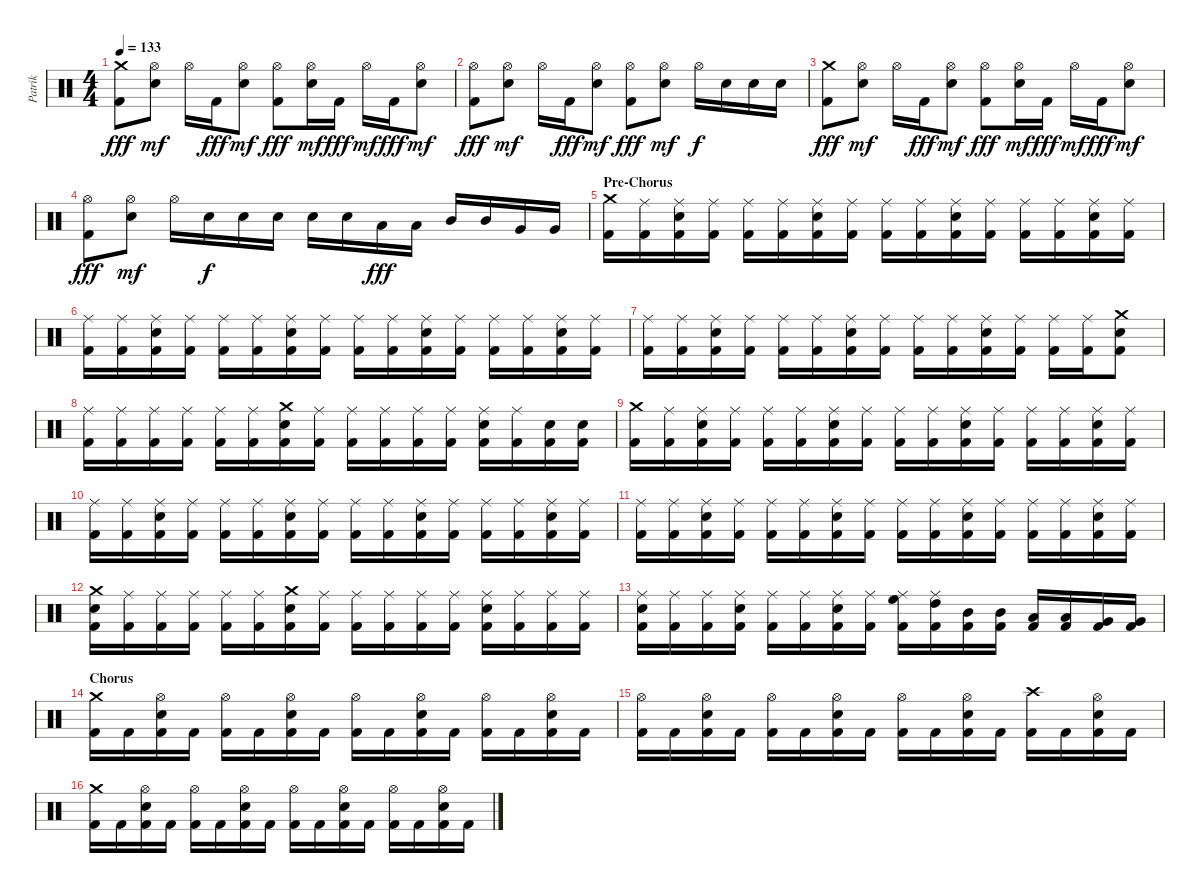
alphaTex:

\track ("Patrik" "Patrik") {instrument percussion}
\staff {score}
\articulation defaults
\ts (4 4)
\tempo 133
\clef neutral
\ks c
("Crash medium (hit)" "Kick (hit) 2").8{dy fff} ("Hi-Hat (open)" "Electric Snare (hit)").8{dy mf} "Hi-Hat (open)".16 "Kick (hit) 2".16{dy fff} ("Hi-Hat (open)" "Electric Snare (hit)").8{dy mf} ("Hi-Hat (open)" "Kick (hit) 2").8{dy fff} ("Hi-Hat (open)" "Electric Snare (hit)").16{dy mf} "Kick (hit) 2".16{dy fff} "Hi-Hat (open)".16{dy mf} "Kick (hit) 2".16{dy fff} ("Hi-Hat (open)" "Electric Snare (hit)").8{dy mf} |
("Hi-Hat (open)" "Kick (hit) 2").8{dy fff} ("Hi-Hat (open)" "Electric Snare (hit)").8{dy mf} "Hi-Hat (open)".16 "Kick (hit) 2".16{dy fff} ("Hi-Hat (open)" "Electric Snare (hit)").8{dy mf} ("Hi-Hat (open)" "Kick (hit) 2").8{dy fff} ("Hi-Hat (open)" "Electric Snare (hit)").8{dy mf} "Hi-Hat (open)".16{dy f} "Electric Snare (hit)".16 "Electric Snare (hit)".16 "Electric Snare (hit)".16 |
("Crash medium (hit)" "Kick (hit) 2").8{dy fff} ("Hi-Hat (open)" "Electric Snare (hit)").8{dy mf} "Hi-Hat (open)".16 "Kick (hit) 2".16{dy fff} ("Hi-Hat (open)" "Electric Snare (hit)").8{dy mf} ("Hi-Hat (open)" "Kick (hit) 2").8{dy fff} ("Hi-Hat (open)" "Electric Snare (hit)").16{dy mf} "Kick (hit) 2".16{dy fff} "Hi-Hat (open)".16{dy mf} "Kick (hit) 2".16{dy fff} ("Hi-Hat (open)" "Electric Snare (hit)").8{dy mf} |
("Hi-Hat (open)" "Kick (hit) 2").8{dy fff} ("Hi-Hat (open)" "Electric Snare (hit)").8{dy mf} "Hi-Hat (open)".16 "Electric Snare (hit)".16{dy f} "Electric Snare (hit)".16 "Electric Snare (hit)".16 "Electric Snare (hit)".16 "Electric Snare (hit)".16 "Low Tom (hit)".16{dy fff} "Low Tom (hit)".16 "Mid Tom (hit)".16 "Mid Tom (hit)".16 "Very Low Tom (hit)".16 "Very Low Tom (hit)".16 |
\section ("" "Pre-Chorus")
("Crash medium (hit)" "Kick (hit) 2").16 ("Ride (middle)" "Kick (hit) 2").16 ("Ride (middle)" "Electric Snare (hit)" "Kick (hit) 2").16 ("Ride (middle)" "Kick (hit) 2").16 ("Ride (middle)" "Kick (hit) 2").16 ("Ride (middle)" "Kick (hit) 2").16 ("Ride (middle)" "Electric Snare (hit)" "Kick (hit) 2").16 ("Ride (middle)" "Kick (hit) 2").16 ("Ride (middle)" "Kick (hit) 2").16 ("Ride (middle)" "Kick (hit) 2").16 ("Ride (middle)" "Electric Snare (hit)" "Kick (hit) 2").16 ("Ride (middle)" "Kick (hit) 2").16 ("Ride (middle)" "Kick (hit) 2").16 ("Ride (middle)" "Kick (hit) 2").16 ("Ride (middle)" "Electric Snare (hit)" "Kick (hit) 2").16 ("Ride (middle)" "Kick (hit) 2").16 |
("Ride (middle)" "Kick (hit) 2").16 ("Ride (middle)" "Kick (hit) 2").16 ("Ride (middle)" "Electric Snare (hit)" "Kick (hit) 2").16 ("Ride (middle)" "Kick (hit) 2").16 ("Ride (middle)" "Kick (hit) 2").16 ("Ride (middle)" "Kick (hit) 2").16 ("Ride (middle)" "Electric Snare (hit)" "Kick (hit) 2").16 ("Ride (middle)" "Kick (hit) 2").16 ("Ride (middle)" "Kick (hit) 2").16 ("Ride (middle)" "Kick (hit) 2").16 ("Ride (middle)" "Electric Snare (hit)" "Kick (hit) 2").16 ("Ride (middle)" "Kick (hit) 2").16 ("Ride (middle)" "Kick (hit) 2").16 ("Ride (middle)" "Kick (hit) 2").16 ("Ride (middle)" "Electric Snare (hit)" "Kick (hit) 2").16 ("Ride (middle)" "Kick (hit) 2").16 |
("Ride (middle)" "Kick (hit) 2").16 ("Ride (middle)" "Kick (hit) 2").16 ("Ride (middle)" "Electric Snare (hit)" "Kick (hit) 2").16 ("Ride (middle)" "Kick (hit) 2").16 ("Ride (middle)" "Kick (hit) 2").16 ("Ride (middle)" "Kick (hit) 2").16 ("Ride (middle)" "Electric Snare (hit)" "Kick (hit) 2").16 ("Ride (middle)" "Kick (hit) 2").16 ("Ride (middle)" "Kick (hit) 2").16 ("Ride (middle)" "Kick (hit) 2").16 ("Ride (middle)" "Electric Snare (hit)" "Kick (hit) 2").16 ("Ride (middle)" "Kick (hit) 2").16 ("Ride (middle)" "Kick (hit) 2").16 ("Ride (middle)" "Kick (hit) 2").16 ("Crash medium (hit)" "Electric Snare (hit)" "Kick (hit) 2").8 |
("Ride (middle)" "Kick (hit) 2").16 ("Ride (middle)" "Kick (hit) 2").16 ("Ride (middle)" "Kick (hit) 2").16 ("Ride (middle)" "Kick (hit) 2").16 ("Ride (middle)" "Kick (hit) 2").16 ("Ride (middle)" "Kick (hit) 2").16 ("Crash medium (hit)" "Electric Snare (hit)" "Kick (hit) 2").16 ("Ride (middle)" "Kick (hit) 2").16 ("Ride (middle)" "Kick (hit) 2").16 ("Ride (middle)" "Kick (hit) 2").16 ("Ride (middle)" "Kick (hit) 2").16 ("Ride (middle)" "Kick (hit) 2").16 ("Ride (middle)" "Electric Snare (hit)" "Kick (hit) 2").16 ("Ride (middle)" "Kick (hit) 2").16 ("Electric Snare (hit)" "Kick (hit) 2").16 ("Electric Snare (hit)" "Kick (hit) 2").16 |
("Crash medium (hit)" "Kick (hit) 2").16 ("Ride (middle)" "Kick (hit) 2").16 ("Ride (middle)" "Electric Snare (hit)" "Kick (hit) 2").16 ("Ride (middle)" "Kick (hit) 2").16 ("Ride (middle)" "Kick (hit) 2").16 ("Ride (middle)" "Kick (hit) 2").16 ("Ride (middle)" "Electric Snare (hit)" "Kick (hit) 2").16 ("Ride (middle)" "Kick (hit) 2").16 ("Ride (middle)" "Kick (hit) 2").16 ("Ride (middle)" "Kick (hit) 2").16 ("Ride (middle)" "Electric Snare (hit)" "Kick (hit) 2").16 ("Ride (middle)" "Kick (hit) 2").16 ("Ride (middle)" "Kick (hit) 2").16 ("Ride (middle)" "Kick (hit) 2").16 ("Ride (middle)" "Electric Snare (hit)" "Kick (hit) 2").16 ("Ride (middle)" "Kick (hit) 2").16 |
("Ride (middle)" "Kick (hit) 2").16 ("Ride (middle)" "Kick (hit) 2").16 ("Ride (middle)" "Electric Snare (hit)" "Kick (hit) 2").16 ("Ride (middle)" "Kick (hit) 2").16 ("Ride (middle)" "Kick (hit) 2").16 ("Ride (middle)" "Kick (hit) 2").16 ("Ride (middle)" "Electric Snare (hit)" "Kick (hit) 2").16 ("Ride (middle)" "Kick (hit) 2").16 ("Ride (middle)" "Kick (hit) 2").16 ("Ride (middle)" "Kick (hit) 2").16 ("Ride (middle)" "Electric Snare (hit)" "Kick (hit) 2").16 ("Ride (middle)" "Kick (hit) 2").16 ("Ride (middle)" "Kick (hit) 2").16 ("Ride (middle)" "Kick (hit) 2").16 ("Ride (middle)" "Electric Snare (hit)" "Kick (hit) 2").16 ("Ride (middle)" "Kick (hit) 2").16 |
("Ride (middle)" "Kick (hit) 2").16 ("Ride (middle)" "Kick (hit) 2").16 ("Ride (middle)" "Electric Snare (hit)" "Kick (hit) 2").16 ("Ride (middle)" "Kick (hit) 2").16 ("Ride (middle)" "Kick (hit) 2").16 ("Ride (middle)" "Kick (hit) 2").16 ("Ride (middle)" "Electric Snare (hit)" "Kick (hit) 2").16 ("Ride (middle)" "Kick (hit) 2").16 ("Ride (middle)" "Kick (hit) 2").16 ("Ride (middle)" "Kick (hit) 2").16 ("Ride (middle)" "Electric Snare (hit)" "Kick (hit) 2").16 ("Ride (middle)" "Kick (hit) 2").16 ("Ride (middle)" "Kick (hit) 2").16 ("Ride (middle)" "Kick (hit) 2").16 ("Ride (middle)" "Electric Snare (hit)" "Kick (hit) 2").16 ("Ride (middle)" "Kick (hit) 2").16 |
("Crash medium (hit)" "Electric Snare (hit)" "Kick (hit) 2").16 ("Ride (middle)" "Kick (hit) 2").16 ("Ride (middle)" "Kick (hit) 2").16 ("Ride (middle)" "Kick (hit) 2").16 ("Ride (middle)" "Kick (hit) 2").16 ("Ride (middle)" "Kick (hit) 2").16 ("Crash medium (hit)" "Electric Snare (hit)" "Kick (hit) 2").16 ("Ride (middle)" "Kick (hit) 2").16 ("Ride (middle)" "Kick (hit) 2").16 ("Ride (middle)" "Kick (hit) 2").16 ("Ride (middle)" "Kick (hit) 2").16 ("Ride (middle)" "Kick (hit) 2").16 ("Ride (middle)" "Electric Snare (hit)" "Kick (hit) 2").16 ("Ride (middle)" "Kick (hit) 2").16 ("Ride (middle)" "Kick (hit) 2").16 ("Ride (middle)" "Kick (hit) 2").16 |
("Ride (middle)" "Electric Snare (hit)" "Kick (hit) 2").16 ("Ride (middle)" "Kick (hit) 2").16 ("Ride (middle)" "Kick (hit) 2").16 ("Ride (middle)" "Electric Snare (hit)" "Kick (hit) 2").16 ("Ride (middle)" "Kick (hit) 2").16 ("Ride (middle)" "Kick (hit) 2").16 ("Ride (middle)" "Electric Snare (hit)" "Kick (hit) 2").16 ("Ride (middle)" "Kick (hit) 2").16 ("Ride (middle)" "High Floor Tom (hit)" "Kick (hit) 2").16 ("Ride (middle)" "High Tom (hit)" "Kick (hit) 2").16 ("Mid Tom (hit)" "Kick (hit) 2").16 ("Mid Tom (hit)" "Kick (hit) 2").16 ("Low Tom (hit)" "Kick (hit) 2").16 ("Low Tom (hit)" "Kick (hit) 2").16 ("Very Low Tom (hit)" "Kick (hit) 2").16 ("Very Low Tom (hit)" "Kick (hit) 2").16 |
\section ("" "Chorus")
("Crash medium (hit)" "Kick (hit) 2").16 "Kick (hit) 2".16 ("Hi-Hat (open)" "Electric Snare (hit)" "Kick (hit) 2").16 "Kick (hit) 2".16 ("Hi-Hat (open)" "Kick (hit) 2").16 "Kick (hit) 2".16 ("Hi-Hat (open)" "Electric Snare (hit)" "Kick (hit) 2").16 "Kick (hit) 2".16 ("Hi-Hat (open)" "Kick (hit) 2").16 "Kick (hit) 2".16 ("Hi-Hat (open)" "Electric Snare (hit)" "Kick (hit) 2").16 "Kick (hit) 2".16 ("Hi-Hat (open)" "Kick (hit) 2").16 "Kick (hit) 2".16 ("Hi-Hat (open)" "Electric Snare (hit)" "Kick (hit) 2").16 "Kick (hit) 2".16 |
("Hi-Hat (open)" "Kick (hit) 2").16 "Kick (hit) 2".16 ("Hi-Hat (open)" "Electric Snare (hit)" "Kick (hit) 2").16 "Kick (hit) 2".16 ("Hi-Hat (open)" "Kick (hit) 2").16 "Kick (hit) 2".16 ("Hi-Hat (open)" "Electric Snare (hit)" "Kick (hit) 2").16 "Kick (hit) 2".16 ("Hi-Hat (open)" "Kick (hit) 2").16 "Kick (hit) 2".16 ("Hi-Hat (open)" "Electric Snare (hit)" "Kick (hit) 2").16 "Kick (hit) 2".16 ("Crash high (hit)" "Kick (hit) 2").16 "Kick (hit) 2".16 ("Hi-Hat (open)" "Electric Snare (hit)" "Kick (hit) 2").16 "Kick (hit) 2".16 |
("Crash medium (hit)" "Kick (hit) 2").16 "Kick (hit) 2".16 ("Hi-Hat (open)" "Electric Snare (hit)" "Kick (hit) 2").16 "Kick (hit) 2".16 ("Hi-Hat (open)" "Kick (hit) 2").16 "Kick (hit) 2".16 ("Hi-Hat (open)" "Electric Snare (hit)" "Kick (hit) 2").16 "Kick (hit) 2".16 ("Hi-Hat (open)" "Kick (hit) 2").16 "Kick (hit) 2".16 ("Hi-Hat (open)" "Electric Snare (hit)" "Kick (hit) 2").16 "Kick (hit) 2".16 ("Hi-Hat (open)" "Kick (hit) 2").16 "Kick (hit) 2".16 ("Hi-Hat (open)" "Electric Snare (hit)" "Kick (hit) 2").16 "Kick (hit) 2".16
